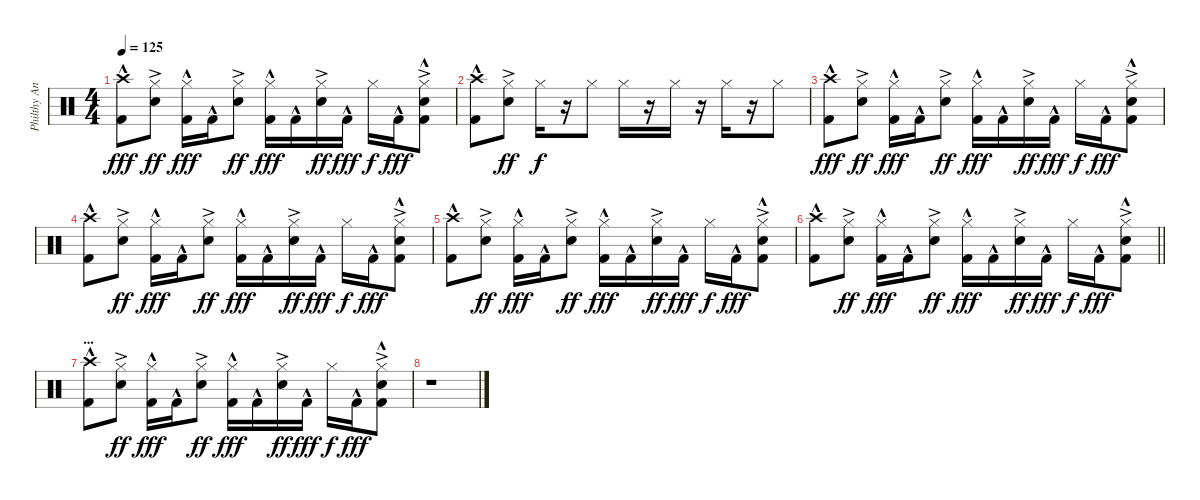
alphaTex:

\track ("Philthy Animal Taylor" "Philthy An") {instrument percussion}
\staff {score}
\articulation defaults
\ts (4 4)
\tempo 125
\clef neutral
\ks c
("Crash high (hit)" "Kick (hit) 2"{hac}).8{dy fff} ("Hi-Hat (closed)" "Electric Snare (hit)"{ac}).8{dy ff} ("Hi-Hat (closed)" "Kick (hit) 2"{hac}).16{dy fff} "Kick (hit) 2"{hac}.16 ("Hi-Hat (closed)" "Electric Snare (hit)"{ac}).8{dy ff} ("Hi-Hat (closed)" "Kick (hit) 2"{hac}).16{dy fff} "Kick (hit) 2"{hac}.16 ("Hi-Hat (closed)" "Electric Snare (hit)"{ac}).16{dy ff} "Kick (hit) 2"{hac}.16{dy fff} "Hi-Hat (closed)".16{dy f} "Kick (hit) 2"{hac}.16{dy fff} ("Hi-Hat (closed)" "Electric Snare (hit)"{ac} "Kick (hit) 2"{hac}).8 |
("Crash high (hit)" "Kick (hit) 2"{hac}).8 ("Hi-Hat (closed)" "Electric Snare (hit)"{ac}).8{dy ff} "Hi-Hat (closed)".16{dy f} r.16 "Hi-Hat (closed)".8 "Hi-Hat (closed)".16 r.16 "Hi-Hat (closed)".16 r.16 "Hi-Hat (closed)".16 r.16 "Hi-Hat (closed)".8 |
("Crash high (hit)" "Kick (hit) 2"{hac}).8{dy fff} ("Hi-Hat (closed)" "Electric Snare (hit)"{ac}).8{dy ff} ("Hi-Hat (closed)" "Kick (hit) 2"{hac}).16{dy fff} "Kick (hit) 2"{hac}.16 ("Hi-Hat (closed)" "Electric Snare (hit)"{ac}).8{dy ff} ("Hi-Hat (closed)" "Kick (hit) 2"{hac}).16{dy fff} "Kick (hit) 2"{hac}.16 ("Hi-Hat (closed)" "Electric Snare (hit)"{ac}).16{dy ff} "Kick (hit) 2"{hac}.16{dy fff} "Hi-Hat (closed)".16{dy f} "Kick (hit) 2"{hac}.16{dy fff} ("Hi-Hat (closed)" "Electric Snare (hit)"{ac} "Kick (hit) 2"{hac}).8 |
("Crash high (hit)" "Kick (hit) 2"{hac}).8 ("Hi-Hat (closed)" "Electric Snare (hit)"{ac}).8{dy ff} ("Hi-Hat (closed)" "Kick (hit) 2"{hac}).16{dy fff} "Kick (hit) 2"{hac}.16 ("Hi-Hat (closed)" "Electric Snare (hit)"{ac}).8{dy ff} ("Hi-Hat (closed)" "Kick (hit) 2"{hac}).16{dy fff} "Kick (hit) 2"{hac}.16 ("Hi-Hat (closed)" "Electric Snare (hit)"{ac}).16{dy ff} "Kick (hit) 2"{hac}.16{dy fff} "Hi-Hat (closed)".16{dy f} "Kick (hit) 2"{hac}.16{dy fff} ("Hi-Hat (closed)" "Electric Snare (hit)"{ac} "Kick (hit) 2"{hac}).8 |
("Crash high (hit)" "Kick (hit) 2"{hac}).8 ("Hi-Hat (closed)" "Electric Snare (hit)"{ac}).8{dy ff} ("Hi-Hat (closed)" "Kick (hit) 2"{hac}).16{dy fff} "Kick (hit) 2"{hac}.16 ("Hi-Hat (closed)" "Electric Snare (hit)"{ac}).8{dy ff} ("Hi-Hat (closed)" "Kick (hit) 2"{hac}).16{dy fff} "Kick (hit) 2"{hac}.16 ("Hi-Hat (closed)" "Electric Snare (hit)"{ac}).16{dy ff} "Kick (hit) 2"{hac}.16{dy fff} "Hi-Hat (closed)".16{dy f} "Kick (hit) 2"{hac}.16{dy fff} ("Hi-Hat (closed)" "Electric Snare (hit)"{ac} "Kick (hit) 2"{hac}).8 |
\barLineRight lightlight
("Crash high (hit)" "Kick (hit) 2"{hac}).8 ("Hi-Hat (closed)" "Electric Snare (hit)"{ac}).8{dy ff} ("Hi-Hat (closed)" "Kick (hit) 2"{hac}).16{dy fff} "Kick (hit) 2"{hac}.16 ("Hi-Hat (closed)" "Electric Snare (hit)"{ac}).8{dy ff} ("Hi-Hat (closed)" "Kick (hit) 2"{hac}).16{dy fff} "Kick (hit) 2"{hac}.16 ("Hi-Hat (closed)" "Electric Snare (hit)"{ac}).16{dy ff} "Kick (hit) 2"{hac}.16{dy fff} "Hi-Hat (closed)".16{dy f} "Kick (hit) 2"{hac}.16{dy fff} ("Hi-Hat (closed)" "Electric Snare (hit)"{ac} "Kick (hit) 2"{hac}).8 |
\section ("" "...")
("Crash high (hit)" "Kick (hit) 2"{hac}).8 ("Hi-Hat (closed)" "Electric Snare (hit)"{ac}).8{dy ff} ("Hi-Hat (closed)" "Kick (hit) 2"{hac}).16{dy fff} "Kick (hit) 2"{hac}.16 ("Hi-Hat (closed)" "Electric Snare (hit)"{ac}).8{dy ff} ("Hi-Hat (closed)" "Kick (hit) 2"{hac}).16{dy fff} "Kick (hit) 2"{hac}.16 ("Hi-Hat (closed)" "Electric Snare (hit)"{ac}).16{dy ff} "Kick (hit) 2"{hac}.16{dy fff} "Hi-Hat (closed)".16{dy f} "Kick (hit) 2"{hac}.16{dy fff} ("Hi-Hat (closed)" "Electric Snare (hit)"{ac} "Kick (hit) 2"{hac}).8 |
r.1
